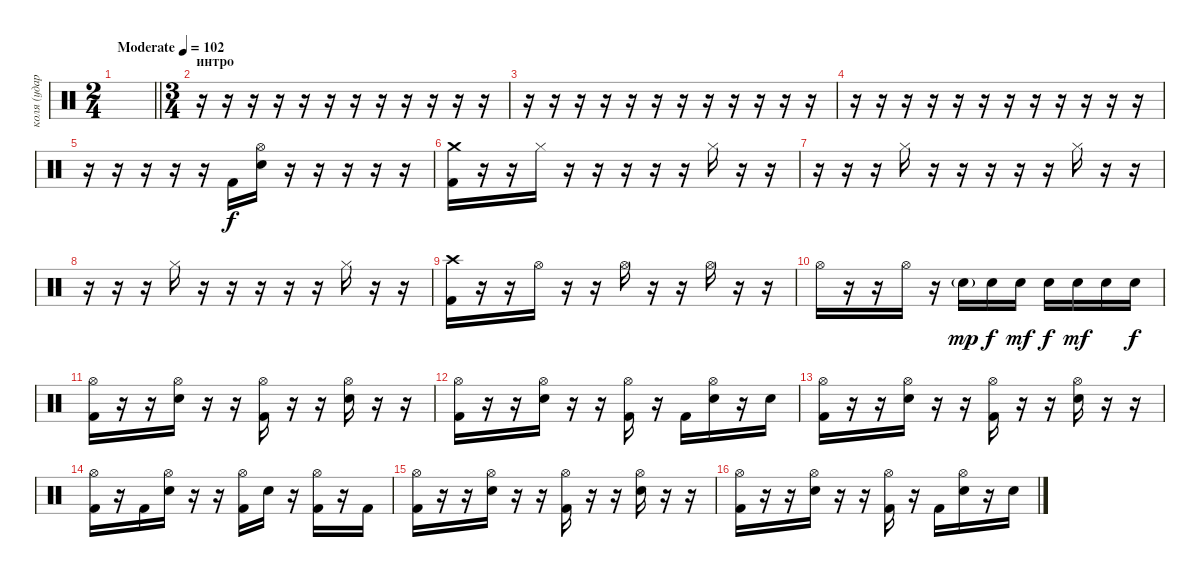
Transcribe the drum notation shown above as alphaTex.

\track ("коля (ударные)" "коля (удар") {instrument percussion}
\staff {score}
\articulation defaults
\ts (2 4)
\tempo (102 "Moderate")
\clef neutral
\barLineRight lightlight
\ks c
|
\ts (3 4)
\section ("" "интро")
r.16 r.16 r.16 r.16 r.16 r.16 r.16 r.16 r.16 r.16 r.16 r.16 |
r.16 r.16 r.16 r.16 r.16 r.16 r.16 r.16 r.16 r.16 r.16 r.16 |
r.16 r.16 r.16 r.16 r.16 r.16 r.16 r.16 r.16 r.16 r.16 r.16 |
r.16 r.16 r.16 r.16 r.16 "Kick (hit) 2".16 ("Snare (hit) 2" "Hi-Hat (open)").16 r.16 r.16 r.16 r.16 r.16 |
("Kick (hit) 2" "Crash medium (hit)").16 r.16 r.16 "Hi-Hat (closed)".16 r.16 r.16 r.16 r.16 r.16 "Hi-Hat (closed)".16 r.16 r.16 |
r.16 r.16 r.16 "Hi-Hat (closed)".16 r.16 r.16 r.16 r.16 r.16 "Hi-Hat (closed)".16 r.16 r.16 |
r.16 r.16 r.16 "Hi-Hat (closed)".16 r.16 r.16 r.16 r.16 r.16 "Hi-Hat (closed)".16 r.16 r.16 |
("Kick (hit) 2" "Crash high (hit)").16 r.16 r.16 "Hi-Hat (open)".16 r.16 r.16 "Hi-Hat (open)".16 r.16 r.16 "Hi-Hat (open)".16 r.16 r.16 |
"Hi-Hat (open)".16 r.16 r.16 "Hi-Hat (open)".16 r.16 "Snare (hit) 2"{g}.16{dy mp} "Snare (hit) 2".16{dy f} "Snare (hit) 2".16{dy mf} "Snare (hit) 2".16{dy f} "Snare (hit) 2".16{dy mf} "Snare (hit) 2".16 "Snare (hit) 2".16{dy f} |
("Kick (hit) 2" "Hi-Hat (open)").16 r.16 r.16 ("Snare (hit) 2" "Hi-Hat (open)").16 r.16 r.16 ("Kick (hit) 2" "Hi-Hat (open)").16 r.16 r.16 ("Snare (hit) 2" "Hi-Hat (open)").16 r.16 r.16 |
("Kick (hit) 2" "Hi-Hat (open)").16 r.16 r.16 ("Snare (hit) 2" "Hi-Hat (open)").16 r.16 r.16 ("Kick (hit) 2" "Hi-Hat (open)").16 r.16 "Kick (hit) 2".16 ("Snare (hit) 2" "Hi-Hat (open)").16 r.16 "Snare (hit) 2".16 |
("Kick (hit) 2" "Hi-Hat (open)").16 r.16 r.16 ("Snare (hit) 2" "Hi-Hat (open)").16 r.16 r.16 ("Kick (hit) 2" "Hi-Hat (open)").16 r.16 r.16 ("Snare (hit) 2" "Hi-Hat (open)").16 r.16 r.16 |
("Kick (hit) 2" "Hi-Hat (open)").16 r.16 "Kick (hit) 2".16 ("Snare (hit) 2" "Hi-Hat (open)").16 r.16 r.16 ("Kick (hit) 2" "Hi-Hat (open)").16 "Snare (hit) 2".16 r.16 ("Kick (hit) 2" "Hi-Hat (open)").16 r.16 "Kick (hit) 2".16 |
("Kick (hit) 2" "Hi-Hat (open)").16 r.16 r.16 ("Snare (hit) 2" "Hi-Hat (open)").16 r.16 r.16 ("Kick (hit) 2" "Hi-Hat (open)").16 r.16 r.16 ("Snare (hit) 2" "Hi-Hat (open)").16 r.16 r.16 |
("Kick (hit) 2" "Hi-Hat (open)").16 r.16 r.16 ("Snare (hit) 2" "Hi-Hat (open)").16 r.16 r.16 ("Kick (hit) 2" "Hi-Hat (open)").16 r.16 "Kick (hit) 2".16 ("Snare (hit) 2" "Hi-Hat (open)").16 r.16 "Snare (hit) 2".16
